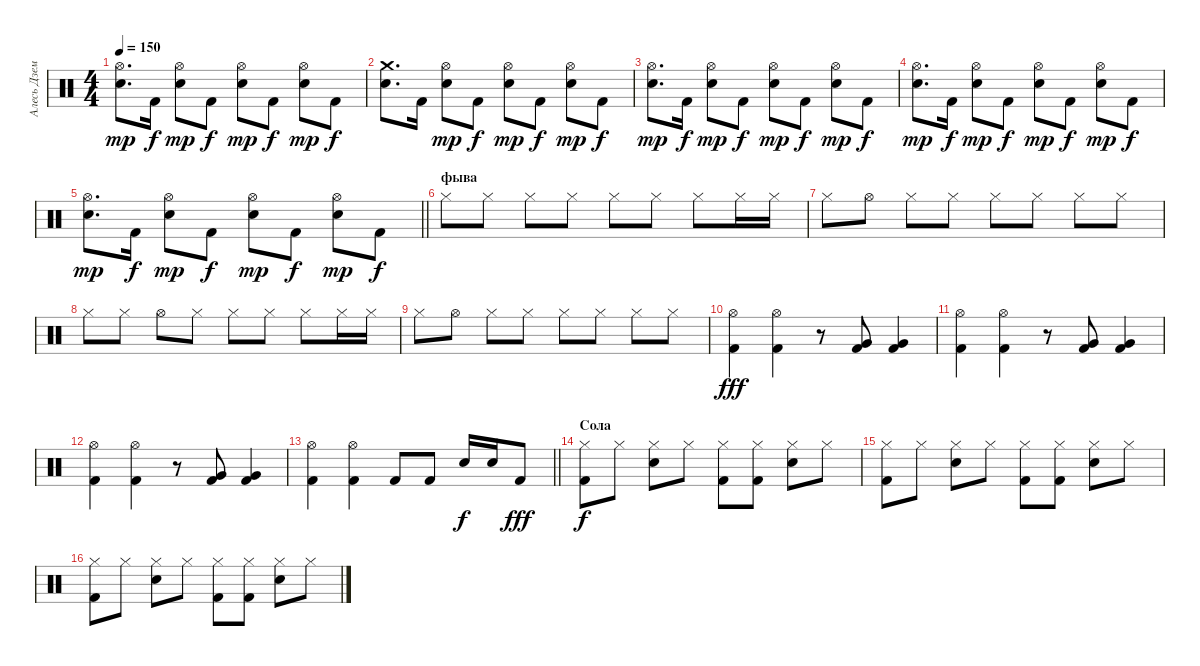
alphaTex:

\track ("Алесь Дземідовіч" "Алесь Дзем") {instrument percussion}
\staff {score}
\articulation defaults
\ts (4 4)
\tempo 150
\clef neutral
\ks c
("Hi-Hat (open)" "Electric Snare (hit)").8{d dy mp} "Kick (hit) 2".16{dy f} ("Hi-Hat (open)" "Electric Snare (hit)").8{dy mp} "Kick (hit) 2".8{dy f} ("Hi-Hat (open)" "Electric Snare (hit)").8{dy mp} "Kick (hit) 2".8{dy f} ("Hi-Hat (open)" "Electric Snare (hit)").8{dy mp} "Kick (hit) 2".8{dy f} |
("Crash medium (hit)" "Electric Snare (hit)").8{d} "Kick (hit) 2".16 ("Hi-Hat (open)" "Electric Snare (hit)").8{dy mp} "Kick (hit) 2".8{dy f} ("Hi-Hat (open)" "Electric Snare (hit)").8{dy mp} "Kick (hit) 2".8{dy f} ("Hi-Hat (open)" "Electric Snare (hit)").8{dy mp} "Kick (hit) 2".8{dy f} |
("Hi-Hat (open)" "Electric Snare (hit)").8{d dy mp} "Kick (hit) 2".16{dy f} ("Hi-Hat (open)" "Electric Snare (hit)").8{dy mp} "Kick (hit) 2".8{dy f} ("Hi-Hat (open)" "Electric Snare (hit)").8{dy mp} "Kick (hit) 2".8{dy f} ("Hi-Hat (open)" "Electric Snare (hit)").8{dy mp} "Kick (hit) 2".8{dy f} |
("Hi-Hat (open)" "Electric Snare (hit)").8{d dy mp} "Kick (hit) 2".16{dy f} ("Hi-Hat (open)" "Electric Snare (hit)").8{dy mp} "Kick (hit) 2".8{dy f} ("Hi-Hat (open)" "Electric Snare (hit)").8{dy mp} "Kick (hit) 2".8{dy f} ("Hi-Hat (open)" "Electric Snare (hit)").8{dy mp} "Kick (hit) 2".8{dy f} |
\barLineRight lightlight
("Hi-Hat (open)" "Electric Snare (hit)").8{d dy mp} "Kick (hit) 2".16{dy f} ("Hi-Hat (open)" "Electric Snare (hit)").8{dy mp} "Kick (hit) 2".8{dy f} ("Hi-Hat (open)" "Electric Snare (hit)").8{dy mp} "Kick (hit) 2".8{dy f} ("Hi-Hat (open)" "Electric Snare (hit)").8{dy mp} "Kick (hit) 2".8{dy f} |
\section ("" "фыва")
"Hi-Hat (closed)".8 "Hi-Hat (closed)".8 "Hi-Hat (closed)".8 "Hi-Hat (closed)".8 "Hi-Hat (closed)".8 "Hi-Hat (closed)".8 "Hi-Hat (closed)".8 "Hi-Hat (closed)".16 "Hi-Hat (closed)".16 |
"Hi-Hat (closed)".8 "Hi-Hat (open)".8 "Hi-Hat (closed)".8 "Hi-Hat (closed)".8 "Hi-Hat (closed)".8 "Hi-Hat (closed)".8 "Hi-Hat (closed)".8 "Hi-Hat (closed)".8 |
"Hi-Hat (closed)".8 "Hi-Hat (closed)".8 "Hi-Hat (open)".8 "Hi-Hat (closed)".8 "Hi-Hat (closed)".8 "Hi-Hat (closed)".8 "Hi-Hat (closed)".8 "Hi-Hat (closed)".16 "Hi-Hat (closed)".16 |
"Hi-Hat (closed)".8 "Hi-Hat (open)".8 "Hi-Hat (closed)".8 "Hi-Hat (closed)".8 "Hi-Hat (closed)".8 "Hi-Hat (closed)".8 "Hi-Hat (closed)".8 "Hi-Hat (closed)".8 |
("Hi-Hat (open)" "Kick (hit) 2").4{dy fff} ("Hi-Hat (open)" "Kick (hit) 2").4 r.8 ("Very Low Tom (hit)" "Kick (hit) 2").8 ("Very Low Tom (hit)" "Kick (hit) 2").4 |
("Hi-Hat (open)" "Kick (hit) 2").4 ("Hi-Hat (open)" "Kick (hit) 2").4 r.8 ("Very Low Tom (hit)" "Kick (hit) 2").8 ("Very Low Tom (hit)" "Kick (hit) 2").4 |
("Hi-Hat (open)" "Kick (hit) 2").4 ("Hi-Hat (open)" "Kick (hit) 2").4 r.8 ("Very Low Tom (hit)" "Kick (hit) 2").8 ("Very Low Tom (hit)" "Kick (hit) 2").4 |
\barLineRight lightlight
("Hi-Hat (open)" "Kick (hit) 2").4 ("Hi-Hat (open)" "Kick (hit) 2").4 "Kick (hit) 2".8 "Kick (hit) 2".8 "Electric Snare (hit)".16{dy f} "Electric Snare (hit)".16 "Kick (hit) 2".8{dy fff} |
\section ("" "Сола")
("Hi-Hat (closed)" "Kick (hit) 2").8{dy f} "Hi-Hat (closed)".8 ("Hi-Hat (closed)" "Electric Snare (hit)").8 "Hi-Hat (closed)".8 ("Hi-Hat (closed)" "Kick (hit) 2").8 ("Hi-Hat (closed)" "Kick (hit) 2").8 ("Hi-Hat (closed)" "Electric Snare (hit)").8 "Hi-Hat (closed)".8 |
("Hi-Hat (closed)" "Kick (hit) 2").8 "Hi-Hat (closed)".8 ("Hi-Hat (closed)" "Electric Snare (hit)").8 "Hi-Hat (closed)".8 ("Hi-Hat (closed)" "Kick (hit) 2").8 ("Hi-Hat (closed)" "Kick (hit) 2").8 ("Hi-Hat (closed)" "Electric Snare (hit)").8 "Hi-Hat (closed)".8 |
("Hi-Hat (closed)" "Kick (hit) 2").8 "Hi-Hat (closed)".8 ("Hi-Hat (closed)" "Electric Snare (hit)").8 "Hi-Hat (closed)".8 ("Hi-Hat (closed)" "Kick (hit) 2").8 ("Hi-Hat (closed)" "Kick (hit) 2").8 ("Hi-Hat (closed)" "Electric Snare (hit)").8 "Hi-Hat (closed)".8
